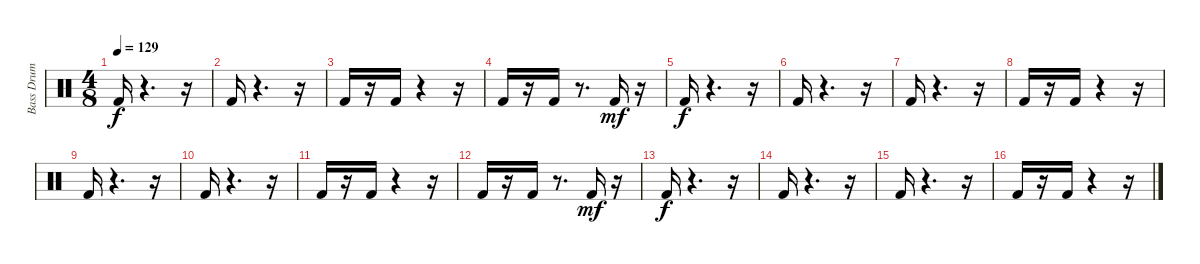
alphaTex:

\track ("Bass Drum" "Bass Drum") {instrument percussion}
\staff {score}
\articulation defaults
\ts (4 8)
\tempo 129
\clef neutral
\ks c "Kick (hit) 2".16{dy f}
r.4{d} r.16 |
"Kick (hit) 2".16 r.4{d} r.16 |
"Kick (hit) 2".16 r.16 "Kick (hit) 2".16 r.4 r.16 |
"Kick (hit) 2".16 r.16 "Kick (hit) 2".16 r.8{d} "Kick (hit) 2".16{dy mf} r.16 |
"Kick (hit) 2".16{dy f} r.4{d} r.16 |
"Kick (hit) 2".16 r.4{d} r.16 |
"Kick (hit) 2".16 r.4{d} r.16 |
"Kick (hit) 2".16 r.16 "Kick (hit) 2".16 r.4 r.16 |
"Kick (hit) 2".16 r.4{d} r.16 |
"Kick (hit) 2".16 r.4{d} r.16 |
"Kick (hit) 2".16 r.16 "Kick (hit) 2".16 r.4 r.16 |
"Kick (hit) 2".16 r.16 "Kick (hit) 2".16 r.8{d} "Kick (hit) 2".16{dy mf} r.16 |
"Kick (hit) 2".16{dy f} r.4{d} r.16 |
"Kick (hit) 2".16 r.4{d} r.16 |
"Kick (hit) 2".16 r.4{d} r.16 |
"Kick (hit) 2".16 r.16 "Kick (hit) 2".16 r.4 r.16
